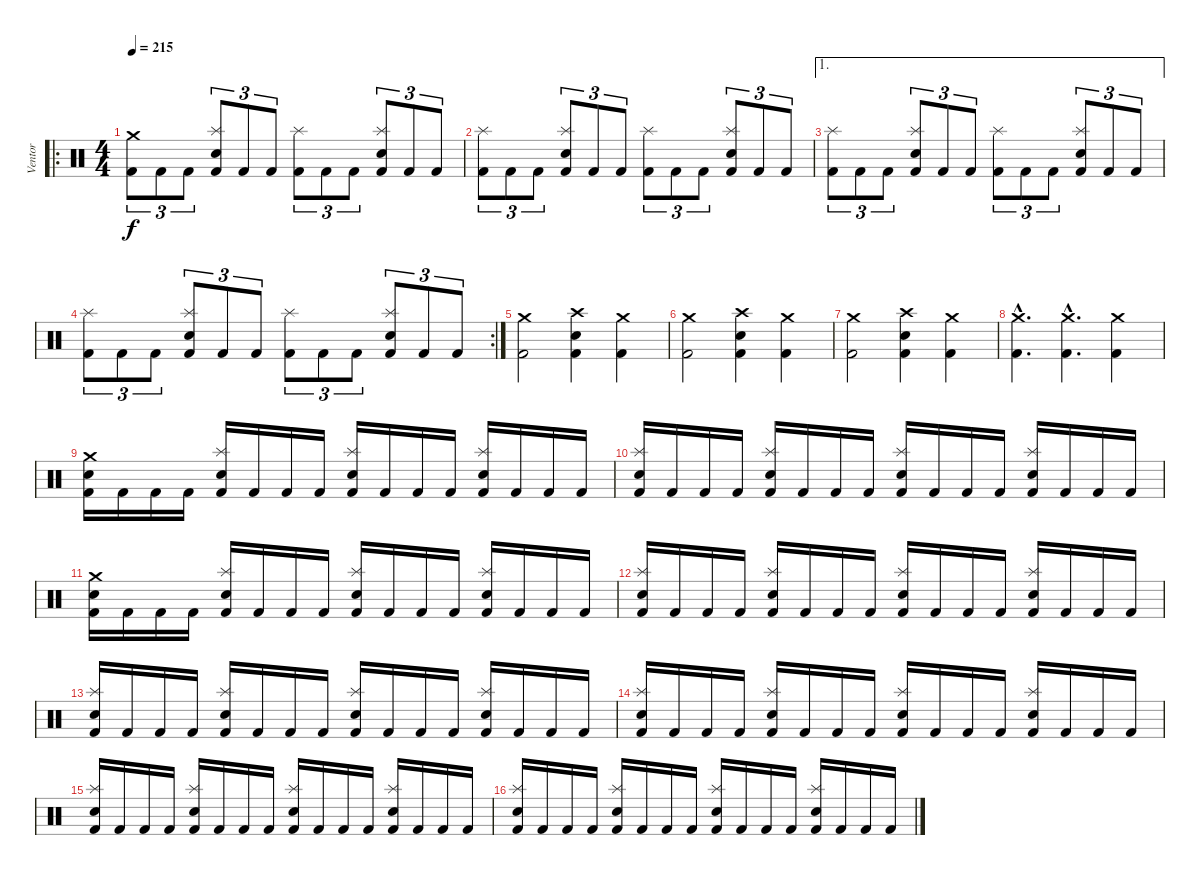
\track ("Ventor" "Ventor") {instrument percussion}
\staff {score}
\articulation defaults
\ro
\ts (4 4)
\tempo 215
\clef neutral
\ks c
("Crash medium (hit)" "Kick (hit) 2").8{tu (3 2) dy f} "Kick (hit) 2".8{tu (3 2)} "Kick (hit) 2".8{tu (3 2)} ("Splash (hit)" "Electric Snare (hit)" "Kick (hit) 2").8{tu (3 2)} "Kick (hit) 2".8{tu (3 2)} "Kick (hit) 2".8{tu (3 2)} ("Splash (hit)" "Kick (hit) 2").8{tu (3 2)} "Kick (hit) 2".8{tu (3 2)} "Kick (hit) 2".8{tu (3 2)} ("Splash (hit)" "Electric Snare (hit)" "Kick (hit) 2").8{tu (3 2)} "Kick (hit) 2".8{tu (3 2)} "Kick (hit) 2".8{tu (3 2)} |
("Splash (hit)" "Kick (hit) 2").8{tu (3 2)} "Kick (hit) 2".8{tu (3 2)} "Kick (hit) 2".8{tu (3 2)} ("Splash (hit)" "Electric Snare (hit)" "Kick (hit) 2").8{tu (3 2)} "Kick (hit) 2".8{tu (3 2)} "Kick (hit) 2".8{tu (3 2)} ("Splash (hit)" "Kick (hit) 2").8{tu (3 2)} "Kick (hit) 2".8{tu (3 2)} "Kick (hit) 2".8{tu (3 2)} ("Splash (hit)" "Electric Snare (hit)" "Kick (hit) 2").8{tu (3 2)} "Kick (hit) 2".8{tu (3 2)} "Kick (hit) 2".8{tu (3 2)} |
\ae 1
("Splash (hit)" "Kick (hit) 2").8{tu (3 2)} "Kick (hit) 2".8{tu (3 2)} "Kick (hit) 2".8{tu (3 2)} ("Splash (hit)" "Electric Snare (hit)" "Kick (hit) 2").8{tu (3 2)} "Kick (hit) 2".8{tu (3 2)} "Kick (hit) 2".8{tu (3 2)} ("Splash (hit)" "Kick (hit) 2").8{tu (3 2)} "Kick (hit) 2".8{tu (3 2)} "Kick (hit) 2".8{tu (3 2)} ("Splash (hit)" "Electric Snare (hit)" "Kick (hit) 2").8{tu (3 2)} "Kick (hit) 2".8{tu (3 2)} "Kick (hit) 2".8{tu (3 2)} |
\rc 2
("Splash (hit)" "Kick (hit) 2").8{tu (3 2)} "Kick (hit) 2".8{tu (3 2)} "Kick (hit) 2".8{tu (3 2)} ("Splash (hit)" "Electric Snare (hit)" "Kick (hit) 2").8{tu (3 2)} "Kick (hit) 2".8{tu (3 2)} "Kick (hit) 2".8{tu (3 2)} ("Splash (hit)" "Kick (hit) 2").8{tu (3 2)} "Kick (hit) 2".8{tu (3 2)} "Kick (hit) 2".8{tu (3 2)} ("Splash (hit)" "Electric Snare (hit)" "Kick (hit) 2").8{tu (3 2)} "Kick (hit) 2".8{tu (3 2)} "Kick (hit) 2".8{tu (3 2)} |
("Crash medium (hit)" "Kick (hit) 2").2 ("Crash high (hit)" "Electric Snare (hit)" "Kick (hit) 2").4 ("Crash medium (hit)" "Kick (hit) 2").4 |
("Crash medium (hit)" "Kick (hit) 2").2 ("Crash high (hit)" "Electric Snare (hit)" "Kick (hit) 2").4 ("Crash medium (hit)" "Kick (hit) 2").4 |
("Crash medium (hit)" "Kick (hit) 2").2 ("Crash high (hit)" "Electric Snare (hit)" "Kick (hit) 2").4 ("Crash medium (hit)" "Kick (hit) 2").4 |
("Crash medium (hit)"{hac} "Kick (hit) 2"{hac}).4{d} ("Crash medium (hit)"{hac} "Kick (hit) 2"{hac}).4{d} ("Crash medium (hit)" "Kick (hit) 2").4 |
("Crash medium (hit)" "Electric Snare (hit)" "Kick (hit) 2").16 "Kick (hit) 2".16 "Kick (hit) 2".16 "Kick (hit) 2".16 ("Splash (hit)" "Electric Snare (hit)" "Kick (hit) 2").16 "Kick (hit) 2".16 "Kick (hit) 2".16 "Kick (hit) 2".16 ("Splash (hit)" "Electric Snare (hit)" "Kick (hit) 2").16 "Kick (hit) 2".16 "Kick (hit) 2".16 "Kick (hit) 2".16 ("Splash (hit)" "Electric Snare (hit)" "Kick (hit) 2").16 "Kick (hit) 2".16 "Kick (hit) 2".16 "Kick (hit) 2".16 |
("Splash (hit)" "Electric Snare (hit)" "Kick (hit) 2").16 "Kick (hit) 2".16 "Kick (hit) 2".16 "Kick (hit) 2".16 ("Splash (hit)" "Electric Snare (hit)" "Kick (hit) 2").16 "Kick (hit) 2".16 "Kick (hit) 2".16 "Kick (hit) 2".16 ("Splash (hit)" "Electric Snare (hit)" "Kick (hit) 2").16 "Kick (hit) 2".16 "Kick (hit) 2".16 "Kick (hit) 2".16 ("Splash (hit)" "Electric Snare (hit)" "Kick (hit) 2").16 "Kick (hit) 2".16 "Kick (hit) 2".16 "Kick (hit) 2".16 |
("Crash medium (hit)" "Electric Snare (hit)" "Kick (hit) 2").16 "Kick (hit) 2".16 "Kick (hit) 2".16 "Kick (hit) 2".16 ("Splash (hit)" "Electric Snare (hit)" "Kick (hit) 2").16 "Kick (hit) 2".16 "Kick (hit) 2".16 "Kick (hit) 2".16 ("Splash (hit)" "Electric Snare (hit)" "Kick (hit) 2").16 "Kick (hit) 2".16 "Kick (hit) 2".16 "Kick (hit) 2".16 ("Splash (hit)" "Electric Snare (hit)" "Kick (hit) 2").16 "Kick (hit) 2".16 "Kick (hit) 2".16 "Kick (hit) 2".16 |
("Splash (hit)" "Electric Snare (hit)" "Kick (hit) 2").16 "Kick (hit) 2".16 "Kick (hit) 2".16 "Kick (hit) 2".16 ("Splash (hit)" "Electric Snare (hit)" "Kick (hit) 2").16 "Kick (hit) 2".16 "Kick (hit) 2".16 "Kick (hit) 2".16 ("Splash (hit)" "Electric Snare (hit)" "Kick (hit) 2").16 "Kick (hit) 2".16 "Kick (hit) 2".16 "Kick (hit) 2".16 ("Splash (hit)" "Electric Snare (hit)" "Kick (hit) 2").16 "Kick (hit) 2".16 "Kick (hit) 2".16 "Kick (hit) 2".16 |
("Splash (hit)" "Electric Snare (hit)" "Kick (hit) 2").16 "Kick (hit) 2".16 "Kick (hit) 2".16 "Kick (hit) 2".16 ("Splash (hit)" "Electric Snare (hit)" "Kick (hit) 2").16 "Kick (hit) 2".16 "Kick (hit) 2".16 "Kick (hit) 2".16 ("Splash (hit)" "Electric Snare (hit)" "Kick (hit) 2").16 "Kick (hit) 2".16 "Kick (hit) 2".16 "Kick (hit) 2".16 ("Splash (hit)" "Electric Snare (hit)" "Kick (hit) 2").16 "Kick (hit) 2".16 "Kick (hit) 2".16 "Kick (hit) 2".16 |
("Splash (hit)" "Electric Snare (hit)" "Kick (hit) 2").16 "Kick (hit) 2".16 "Kick (hit) 2".16 "Kick (hit) 2".16 ("Splash (hit)" "Electric Snare (hit)" "Kick (hit) 2").16 "Kick (hit) 2".16 "Kick (hit) 2".16 "Kick (hit) 2".16 ("Splash (hit)" "Electric Snare (hit)" "Kick (hit) 2").16 "Kick (hit) 2".16 "Kick (hit) 2".16 "Kick (hit) 2".16 ("Splash (hit)" "Electric Snare (hit)" "Kick (hit) 2").16 "Kick (hit) 2".16 "Kick (hit) 2".16 "Kick (hit) 2".16 |
("Splash (hit)" "Electric Snare (hit)" "Kick (hit) 2").16 "Kick (hit) 2".16 "Kick (hit) 2".16 "Kick (hit) 2".16 ("Splash (hit)" "Electric Snare (hit)" "Kick (hit) 2").16 "Kick (hit) 2".16 "Kick (hit) 2".16 "Kick (hit) 2".16 ("Splash (hit)" "Electric Snare (hit)" "Kick (hit) 2").16 "Kick (hit) 2".16 "Kick (hit) 2".16 "Kick (hit) 2".16 ("Splash (hit)" "Electric Snare (hit)" "Kick (hit) 2").16 "Kick (hit) 2".16 "Kick (hit) 2".16 "Kick (hit) 2".16 |
("Splash (hit)" "Electric Snare (hit)" "Kick (hit) 2").16 "Kick (hit) 2".16 "Kick (hit) 2".16 "Kick (hit) 2".16 ("Splash (hit)" "Electric Snare (hit)" "Kick (hit) 2").16 "Kick (hit) 2".16 "Kick (hit) 2".16 "Kick (hit) 2".16 ("Splash (hit)" "Electric Snare (hit)" "Kick (hit) 2").16 "Kick (hit) 2".16 "Kick (hit) 2".16 "Kick (hit) 2".16 ("Splash (hit)" "Electric Snare (hit)" "Kick (hit) 2").16 "Kick (hit) 2".16 "Kick (hit) 2".16 "Kick (hit) 2".16
